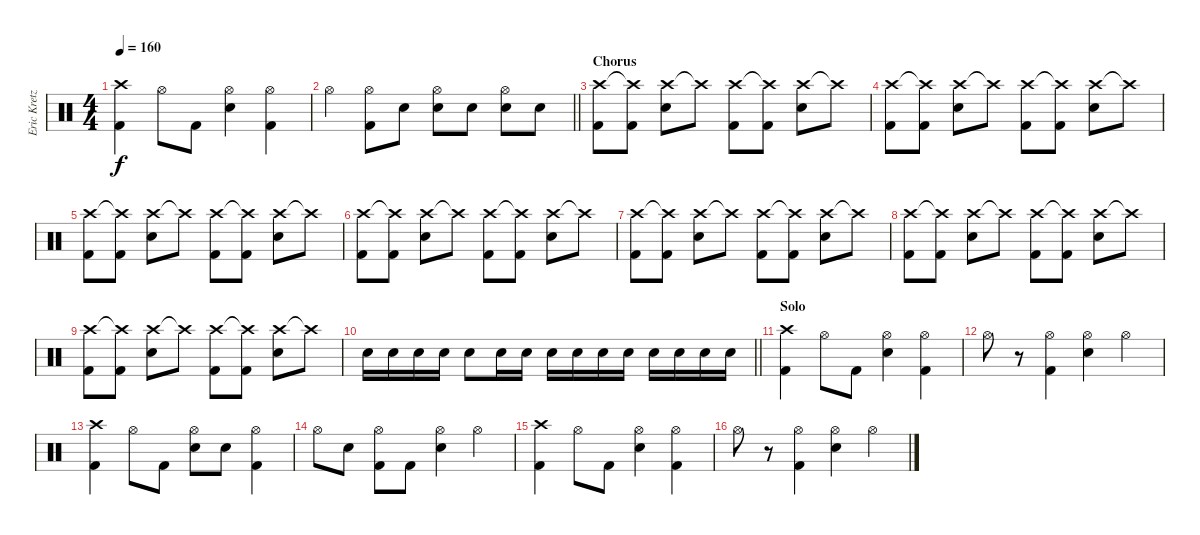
\track ("Eric Kretz (Drums)" "Eric Kretz") {instrument percussion}
\staff {score}
\articulation defaults
\ts (4 4)
\tempo 160
\clef neutral
\ks c
("Crash high (hit)" "Kick (hit) 2").4{dy f} "Hi-Hat (open)".8 "Kick (hit) 2".8 ("Hi-Hat (open)" "Snare (hit) 2").4 ("Hi-Hat (open)" "Kick (hit) 2").4 |
\barLineRight lightlight "Hi-Hat (open)".4
("Hi-Hat (open)" "Kick (hit) 2").8 "Snare (hit) 2".8 ("Hi-Hat (open)" "Snare (hit) 2").8 "Snare (hit) 2".8 ("Hi-Hat (open)" "Snare (hit) 2").8 "Snare (hit) 2".8 |
\section ("" "Chorus")
("Crash high (hit)" "Kick (hit) 2").8 ("Crash high (hit)"{t} "Kick (hit) 2").8 ("Crash high (hit)" "Snare (hit) 2").8 "Crash high (hit)"{t}.8 ("Crash high (hit)" "Kick (hit) 2").8 ("Crash high (hit)"{t} "Kick (hit) 2").8 ("Crash high (hit)" "Snare (hit) 2").8 "Crash high (hit)"{t}.8 |
("Crash high (hit)" "Kick (hit) 2").8 ("Crash high (hit)"{t} "Kick (hit) 2").8 ("Crash high (hit)" "Snare (hit) 2").8 "Crash high (hit)"{t}.8 ("Crash high (hit)" "Kick (hit) 2").8 ("Crash high (hit)"{t} "Kick (hit) 2").8 ("Crash high (hit)" "Snare (hit) 2").8 "Crash high (hit)"{t}.8 |
("Crash high (hit)" "Kick (hit) 2").8 ("Crash high (hit)"{t} "Kick (hit) 2").8 ("Crash high (hit)" "Snare (hit) 2").8 "Crash high (hit)"{t}.8 ("Crash high (hit)" "Kick (hit) 2").8 ("Crash high (hit)"{t} "Kick (hit) 2").8 ("Crash high (hit)" "Snare (hit) 2").8 "Crash high (hit)"{t}.8 |
("Crash high (hit)" "Kick (hit) 2").8 ("Crash high (hit)"{t} "Kick (hit) 2").8 ("Crash high (hit)" "Snare (hit) 2").8 "Crash high (hit)"{t}.8 ("Crash high (hit)" "Kick (hit) 2").8 ("Crash high (hit)"{t} "Kick (hit) 2").8 ("Crash high (hit)" "Snare (hit) 2").8 "Crash high (hit)"{t}.8 |
("Crash high (hit)" "Kick (hit) 2").8 ("Crash high (hit)"{t} "Kick (hit) 2").8 ("Crash high (hit)" "Snare (hit) 2").8 "Crash high (hit)"{t}.8 ("Crash high (hit)" "Kick (hit) 2").8 ("Crash high (hit)"{t} "Kick (hit) 2").8 ("Crash high (hit)" "Snare (hit) 2").8 "Crash high (hit)"{t}.8 |
("Crash high (hit)" "Kick (hit) 2").8 ("Crash high (hit)"{t} "Kick (hit) 2").8 ("Crash high (hit)" "Snare (hit) 2").8 "Crash high (hit)"{t}.8 ("Crash high (hit)" "Kick (hit) 2").8 ("Crash high (hit)"{t} "Kick (hit) 2").8 ("Crash high (hit)" "Snare (hit) 2").8 "Crash high (hit)"{t}.8 |
("Crash high (hit)" "Kick (hit) 2").8 ("Crash high (hit)"{t} "Kick (hit) 2").8 ("Crash high (hit)" "Snare (hit) 2").8 "Crash high (hit)"{t}.8 ("Crash high (hit)" "Kick (hit) 2").8 ("Crash high (hit)"{t} "Kick (hit) 2").8 ("Crash high (hit)" "Snare (hit) 2").8 "Crash high (hit)"{t}.8 |
\barLineRight lightlight "Snare (hit) 2".16 "Snare (hit) 2".16 "Snare (hit) 2".16 "Snare (hit) 2".16 "Snare (hit) 2".8 "Snare (hit) 2".16 "Snare (hit) 2".16 "Snare (hit) 2".16 "Snare (hit) 2".16 "Snare (hit) 2".16 "Snare (hit) 2".16 "Snare (hit) 2".16 "Snare (hit) 2".16 "Snare (hit) 2".16 "Snare (hit) 2".16
|
\section ("" "Solo")
("Crash high (hit)" "Kick (hit) 2").4 "Hi-Hat (open)".8 "Kick (hit) 2".8 ("Hi-Hat (open)" "Snare (hit) 2").4 ("Hi-Hat (open)" "Kick (hit) 2").4 |
"Hi-Hat (open)".8 r.8 ("Hi-Hat (open)" "Kick (hit) 2").4 ("Hi-Hat (open)" "Snare (hit) 2").4 "Hi-Hat (open)".4 |
("Crash high (hit)" "Kick (hit) 2").4 "Hi-Hat (open)".8 "Kick (hit) 2".8 ("Hi-Hat (open)" "Snare (hit) 2").8 "Snare (hit) 2".8 ("Hi-Hat (open)" "Kick (hit) 2").4 |
"Hi-Hat (open)".8 "Snare (hit) 2".8 ("Hi-Hat (open)" "Kick (hit) 2").8 "Kick (hit) 2".8 ("Hi-Hat (open)" "Snare (hit) 2").4 "Hi-Hat (open)".4 |
("Crash high (hit)" "Kick (hit) 2").4 "Hi-Hat (open)".8 "Kick (hit) 2".8 ("Hi-Hat (open)" "Snare (hit) 2").4 ("Hi-Hat (open)" "Kick (hit) 2").4 |
"Hi-Hat (open)".8 r.8 ("Hi-Hat (open)" "Kick (hit) 2").4 ("Hi-Hat (open)" "Snare (hit) 2").4 "Hi-Hat (open)".4
